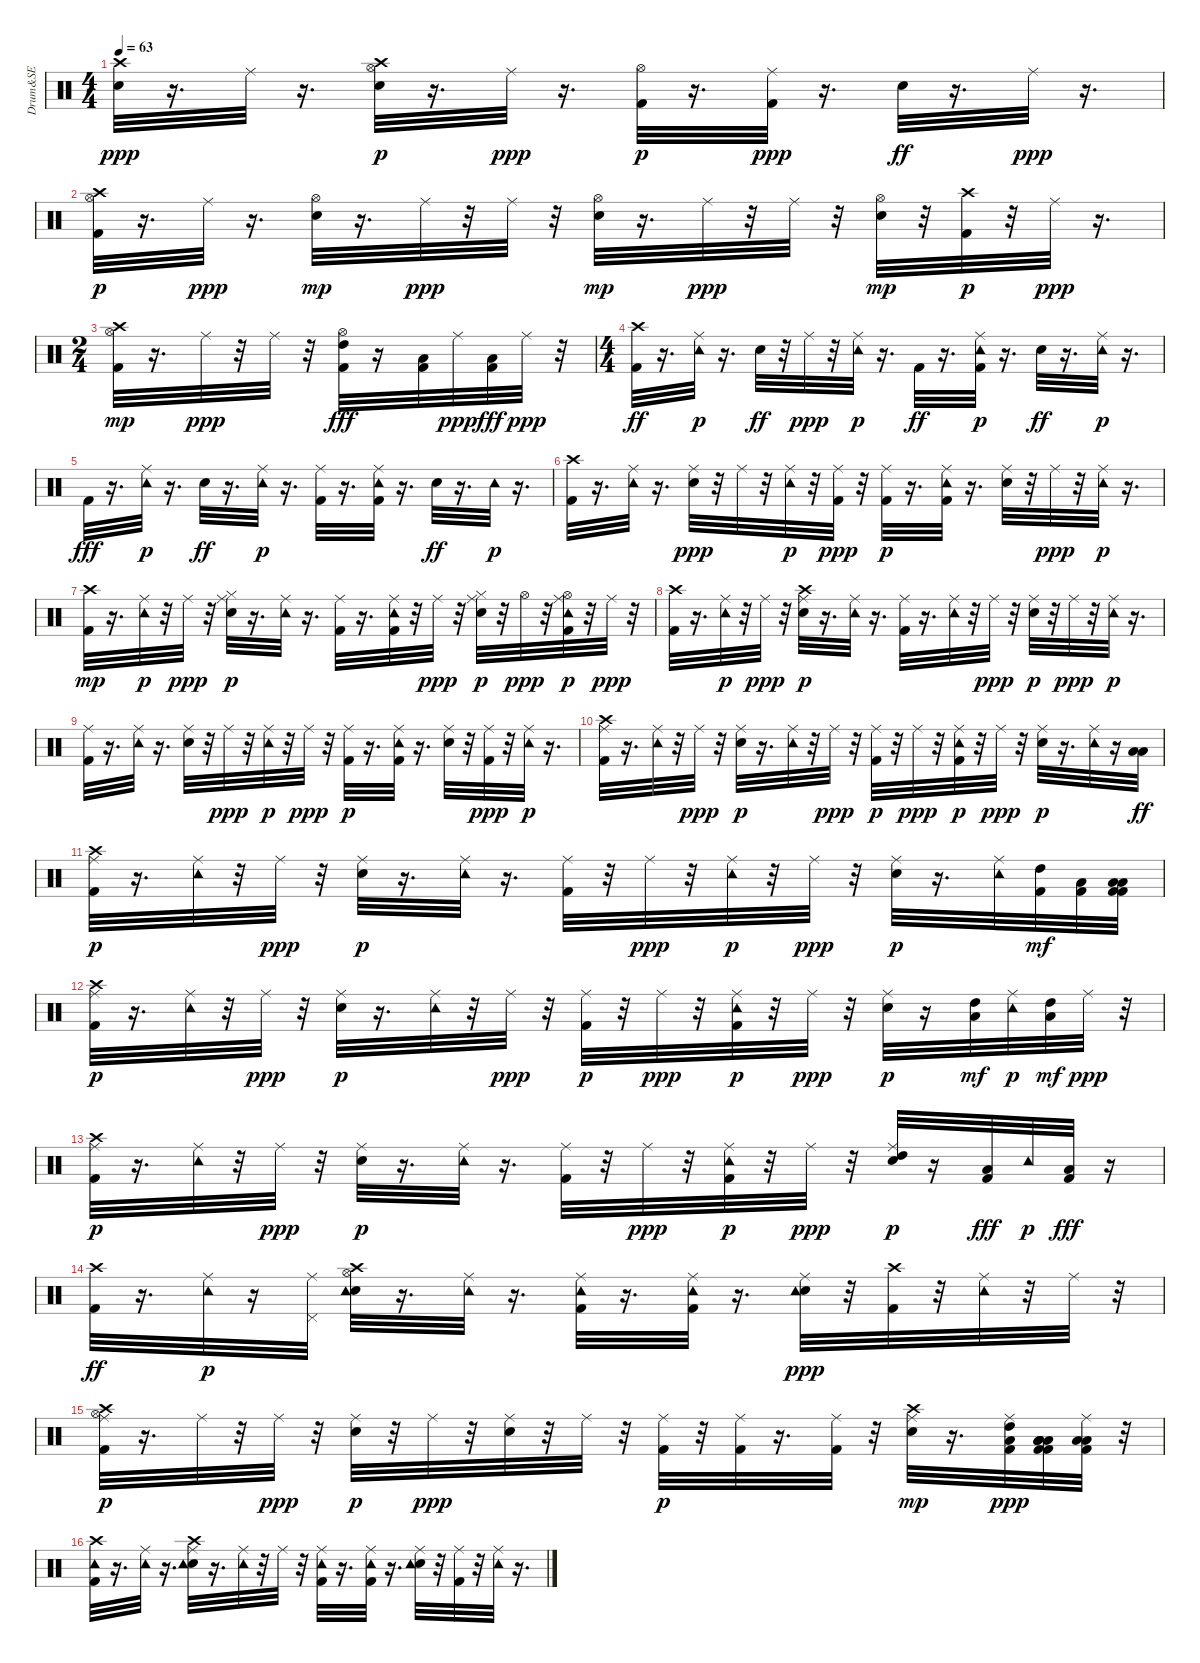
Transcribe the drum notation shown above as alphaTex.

\track ("Drum&SE" "Drum&SE") {instrument percussion}
\staff {score}
\articulation defaults
\ts (4 4)
\tempo 63
\clef neutral
\ks c
("Snare (hit) 2" "Crash high (hit)").32{dy ppp} r.16{d} "Ride (middle)".32 r.16{d} ("Snare (hit) 2" "Hi-Hat (open)" "Crash high (hit)").32{dy p} r.16{d} "Ride (middle)".32{dy ppp} r.16{d} ("Kick (hit) 2" "Hi-Hat (open)").32{dy p} r.16{d} ("Kick (hit) 2" "Ride (middle)").32{dy ppp} r.16{d} "Snare (hit) 2".32{dy ff} r.16{d} "Ride (middle)".32{dy ppp} r.16{d} |
("Kick (hit) 2" "Hi-Hat (open)" "Crash high (hit)").32{dy p} r.16{d} "Ride (middle)".32{dy ppp} r.16{d} ("Snare (hit) 2" "Hi-Hat (open)").32{dy mp} r.16{d} "Ride (middle)".32{dy ppp} r.32 "Ride (middle)".32 r.32 ("Snare (hit) 2" "Hi-Hat (open)").32{dy mp} r.16{d} "Ride (middle)".32{dy ppp} r.32 "Ride (middle)".32 r.32 ("Snare (hit) 2" "Hi-Hat (open)").32{dy mp} r.32 ("Kick (hit) 2" "Crash high (hit)").32{dy p} r.32 "Ride (middle)".32{dy ppp} r.16{d} |
\ts (2 4)
("Kick (hit) 2" "Hi-Hat (open)" "Crash high (hit)").32{dy mp} r.16{d} "Ride (middle)".32{dy ppp} r.32 "Ride (middle)".32 r.32 ("Kick (hit) 2" "Hi-Hat (open)" "High Tom (hit)").32{dy fff} r.16 ("Kick (hit) 2" "Low Tom (hit)").32 "Ride (middle)".32{dy ppp} ("Kick (hit) 2" "Low Floor Tom (hit)").32{dy fff} "Ride (middle)".32{dy ppp} r.32 |
\ts (4 4)
("Kick (hit) 2" "Crash high (hit)").32{dy ff} r.16{d} ("Ride (middle)" "Tambourine (hit)").32{dy p} r.16{d} "Snare (hit) 2".32{dy ff} r.32 "Ride (middle)".32{dy ppp} r.32 ("Ride (middle)" "Tambourine (hit)").32{dy p} r.16{d} "Kick (hit) 2".32{dy ff} r.16{d} ("Kick (hit) 2" "Ride (middle)" "Tambourine (hit)").32{dy p} r.16{d} "Snare (hit) 2".32{dy ff} r.16{d} ("Ride (middle)" "Tambourine (hit)").32{dy p} r.16{d} |
"Kick (hit) 2".32{dy fff} r.16{d} ("Ride (middle)" "Tambourine (hit)").32{dy p} r.16{d} "Snare (hit) 2".32{dy ff} r.16{d} ("Ride (middle)" "Tambourine (hit)").32{dy p} r.16{d} ("Kick (hit) 2" "Ride (middle)").32 r.16{d} ("Kick (hit) 2" "Ride (middle)" "Tambourine (hit)").32 r.16{d} "Snare (hit) 2".32{dy ff} r.16{d} "Tambourine (hit)".32{dy p} r.16{d} |
("Kick (hit) 2" "Crash high (hit)").32 r.16{d} ("Ride (middle)" "Tambourine (hit)").32 r.16{d} ("Snare (hit) 2" "Ride (middle)").32{dy ppp} r.32 "Ride (middle)".32 r.32 ("Ride (middle)" "Tambourine (hit)").32{dy p} r.32 ("Kick (hit) 2" "Ride (middle)").32{dy ppp} r.32 ("Kick (hit) 2" "Ride (middle)").32{dy p} r.16{d} ("Ride (middle)" "Kick (hit) 2" "Tambourine (hit)").32 r.16{d} ("Snare (hit) 2" "Ride (middle)").32 r.32 "Ride (middle)".32{dy ppp} r.32 ("Ride (middle)" "Tambourine (hit)").32{dy p} r.16{d} |
("Kick (hit) 2" "Crash high (hit)").32{dy mp} r.16{d} ("Ride (middle)" "Tambourine (hit)").32{dy p} r.32 "Ride (middle)".32{dy ppp} r.32 ("Snare (hit) 2" "Hi-Hat (closed)" "Ride (middle)").32{dy p} r.16{d} ("Ride (middle)" "Tambourine (hit)").32 r.16{d} ("Kick (hit) 2" "Ride (middle)").32 r.16{d} ("Kick (hit) 2" "Ride (middle)" "Tambourine (hit)").32 r.32 "Ride (middle)".32{dy ppp} r.32 ("Snare (hit) 2" "Hi-Hat (closed)" "Ride (middle)").32{dy p} r.32 "Hi-Hat (open)".32{dy ppp} r.32 ("Kick (hit) 2" "Ride (middle)" "Hi-Hat (open)" "Tambourine (hit)").32{dy p} r.32 "Ride (middle)".32{dy ppp} r.32 |
("Kick (hit) 2" "Crash high (hit)").32 r.16{d} ("Ride (middle)" "Tambourine (hit)").32{dy p} r.32 "Ride (middle)".32{dy ppp} r.32 ("Snare (hit) 2" "Crash high (hit)" "Ride (middle)").32{dy p} r.16{d} ("Ride (middle)" "Tambourine (hit)").32 r.16{d} ("Kick (hit) 2" "Ride (middle)").32 r.16{d} ("Ride (middle)" "Tambourine (hit)").32 r.32 "Ride (middle)".32{dy ppp} r.32 ("Snare (hit) 2" "Ride (middle)").32{dy p} r.32 "Ride (middle)".32{dy ppp} r.32 ("Ride (middle)" "Tambourine (hit)").32{dy p} r.16{d} |
("Kick (hit) 2" "Ride (middle)").32 r.16{d} ("Ride (middle)" "Tambourine (hit)").32 r.16{d} ("Snare (hit) 2" "Ride (middle)").32 r.32 "Ride (middle)".32{dy ppp} r.32 ("Ride (middle)" "Tambourine (hit)").32{dy p} r.32 "Ride (middle)".32{dy ppp} r.32 ("Kick (hit) 2" "Ride (middle)").32{dy p} r.16{d} ("Kick (hit) 2" "Ride (middle)" "Tambourine (hit)").32 r.16{d} ("Snare (hit) 2" "Ride (middle)").32 r.32 ("Kick (hit) 2" "Ride (middle)").32{dy ppp} r.32 ("Ride (middle)" "Tambourine (hit)").32{dy p} r.16{d} |
("Kick (hit) 2" "Crash high (hit)" "Ride (middle)").32 r.16{d} ("Ride (middle)" "Tambourine (hit)").32 r.32 "Ride (middle)".32{dy ppp} r.32 ("Snare (hit) 2" "Ride (middle)").32{dy p} r.16{d} ("Ride (middle)" "Tambourine (hit)").32 r.32 "Ride (middle)".32{dy ppp} r.32 ("Kick (hit) 2" "Ride (middle)").32{dy p} r.32 "Ride (middle)".32{dy ppp} r.32 ("Kick (hit) 2" "Ride (middle)" "Tambourine (hit)").32{dy p} r.32 "Ride (middle)".32{dy ppp} r.32 ("Snare (hit) 2" "Ride (middle)").32{dy p} r.16{d} ("Ride (middle)" "Tambourine (hit)").32 r.16 ("Low Tom (hit)" "Low Floor Tom (hit)").32{dy ff} |
("Kick (hit) 2" "Crash high (hit)" "Ride (middle)").32{dy p} r.16{d} ("Ride (middle)" "Tambourine (hit)").32 r.32 "Ride (middle)".32{dy ppp} r.32 ("Snare (hit) 2" "Ride (middle)").32{dy p} r.16{d} ("Ride (middle)" "Tambourine (hit)").32 r.16{d} ("Kick (hit) 2" "Ride (middle)").32 r.32 "Ride (middle)".32{dy ppp} r.32 ("Ride (middle)" "Tambourine (hit)").32{dy p} r.32 "Ride (middle)".32{dy ppp} r.32 ("Snare (hit) 2" "Ride (middle)").32{dy p} r.16{d} ("Ride (middle)" "Tambourine (hit)").32 ("Kick (hit) 2" "High Tom (hit)").32{dy mf} ("Kick (hit) 2" "Low Tom (hit)").32 ("Kick (hit) 2" "Low Tom (hit)" "Kick (hit) 2" "Low Floor Tom (hit)").32 |
("Kick (hit) 2" "Crash high (hit)" "Ride (middle)").32{dy p} r.16{d} ("Ride (middle)" "Tambourine (hit)").32 r.32 "Ride (middle)".32{dy ppp} r.32 ("Snare (hit) 2" "Ride (middle)").32{dy p} r.16{d} ("Ride (middle)" "Tambourine (hit)").32 r.32 "Ride (middle)".32{dy ppp} r.32 ("Kick (hit) 2" "Ride (middle)").32{dy p} r.32 "Ride (middle)".32{dy ppp} r.32 ("Kick (hit) 2" "Ride (middle)" "Tambourine (hit)").32{dy p} r.32 "Ride (middle)".32{dy ppp} r.32 ("Snare (hit) 2" "Ride (middle)").32{dy p} r.16 ("Low Tom (hit)" "High Tom (hit)").32{dy mf} ("Ride (middle)" "Tambourine (hit)").32{dy p} ("Low Tom (hit)" "High Tom (hit)").32{dy mf} "Ride (middle)".32{dy ppp} r.32 |
("Kick (hit) 2" "Crash high (hit)" "Ride (middle)").32{dy p} r.16{d} ("Ride (middle)" "Tambourine (hit)").32 r.32 "Ride (middle)".32{dy ppp} r.32 ("Snare (hit) 2" "Ride (middle)").32{dy p} r.16{d} ("Ride (middle)" "Tambourine (hit)").32 r.16{d} ("Kick (hit) 2" "Ride (middle)").32 r.32 "Ride (middle)".32{dy ppp} r.32 ("Kick (hit) 2" "Ride (middle)" "Tambourine (hit)").32{dy p} r.32 "Ride (middle)".32{dy ppp} r.32 ("Snare (hit) 2" "High Tom (hit)" "Ride (middle)").32{dy p} r.16 ("Kick (hit) 2" "Low Tom (hit)").32{dy fff} "Tambourine (hit)".32{dy p} ("Kick (hit) 2" "Low Floor Tom (hit)").32{dy fff} r.16 |
("Kick (hit) 2" "Crash high (hit)").32{dy ff} r.16{d} ("Ride (middle)" "Tambourine (hit)").32{dy p} r.16 ("Pedal Hi-Hat (hit)" "Ride (middle)").32 ("Snare (hit) 2" "Hi-Hat (open)" "Crash high (hit)" "Tambourine (hit)").32 r.16{d} ("Ride (middle)" "Tambourine (hit)").32 r.16{d} ("Kick (hit) 2" "Ride (middle)" "Tambourine (hit)").32 r.16{d} ("Kick (hit) 2" "Ride (middle)" "Tambourine (hit)").32 r.16{d} ("Snare (hit) 2" "Ride (middle)" "Tambourine (hit)").32{dy ppp} r.32 ("Kick (hit) 2" "Crash high (hit)").32 r.32 ("Ride (middle)" "Tambourine (hit)").32 r.32 "Ride (middle)".32 r.32 |
("Kick (hit) 2" "Hi-Hat (open)" "Crash high (hit)" "Ride (middle)").32{dy p} r.16{d} "Ride (middle)".32 r.32 "Ride (middle)".32{dy ppp} r.32 ("Snare (hit) 2" "Ride (middle)").32{dy p} r.32 "Ride (middle)".32{dy ppp} r.32 ("Snare (hit) 2" "Ride (middle)").32 r.32 "Ride (middle)".32 r.32 ("Kick (hit) 2" "Ride (middle)").32{dy p} r.32 ("Kick (hit) 2" "Ride (middle)").32 r.16{d} ("Kick (hit) 2" "Ride (middle)").32 r.32 ("Snare (hit) 2" "Crash high (hit)" "Ride (middle)").32{dy mp} r.16{d} ("High Tom (hit)" "Kick (hit) 2" "Low Floor Tom (hit)" "Ride (middle)").32{dy ppp} ("Kick (hit) 2" "Low Floor Tom (hit)" "Low Tom (hit)" "Kick (hit) 2" "Low Floor Tom (hit)" "Low Tom (hit)").32 ("Low Floor Tom (hit)" "Kick (hit) 2" "Low Floor Tom (hit)" "Ride (middle)").32 r.32 |
("Kick (hit) 2" "Crash high (hit)" "Tambourine (hit)").32 r.16{d} ("Ride (middle)" "Tambourine (hit)").32 r.16{d} ("Snare (hit) 2" "Crash high (hit)" "Ride (middle)" "Tambourine (hit)").32 r.16{d} ("Ride (middle)" "Tambourine (hit)").32 r.32 "Ride (middle)".32 r.32 ("Kick (hit) 2" "Ride (middle)" "Tambourine (hit)").32 r.16{d} ("Kick (hit) 2" "Ride (middle)" "Tambourine (hit)").32 r.16{d} ("Snare (hit) 2" "Ride (middle)" "Tambourine (hit)").32 r.32 ("Kick (hit) 2" "Ride (middle)").32 r.32 ("Ride (middle)" "Tambourine (hit)").32 r.16{d}
